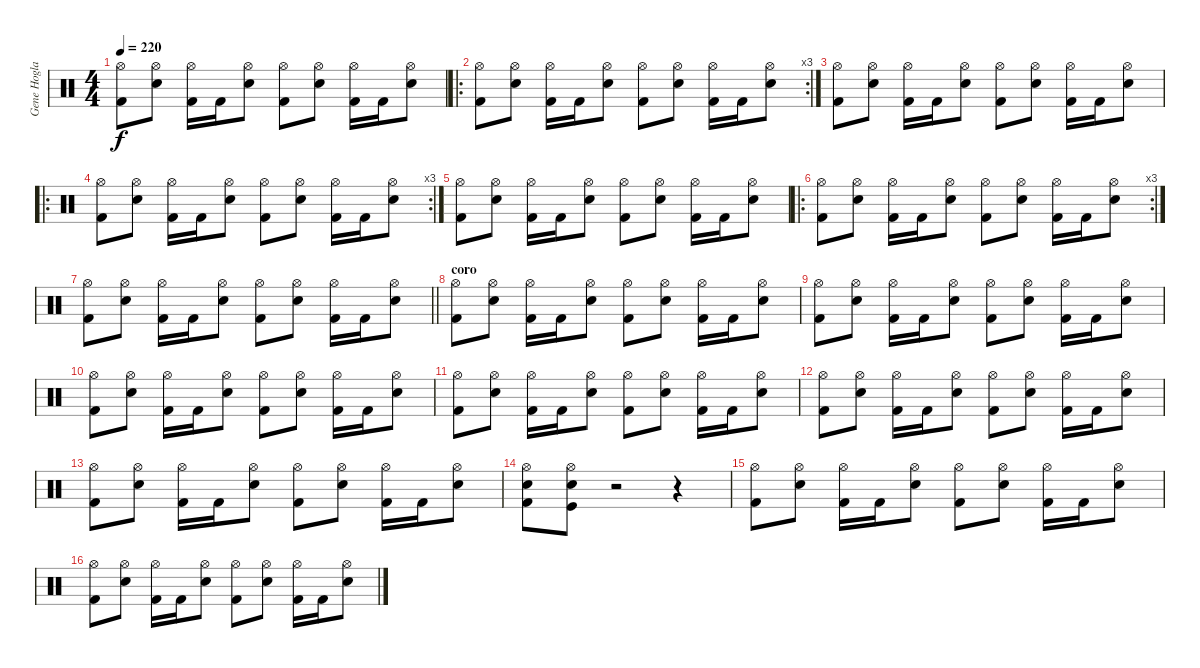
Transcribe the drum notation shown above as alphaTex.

\track ("Gene Hoglan" "Gene Hogla") {instrument percussion}
\staff {score}
\articulation defaults
\ts (4 4)
\tempo 220
\clef neutral
\ks c
("Hi-Hat (open)" "Kick (hit) 2").8{dy f} ("Hi-Hat (open)" "Electric Snare (hit)").8 ("Hi-Hat (open)" "Kick (hit) 2").16 "Kick (hit) 2".16 ("Hi-Hat (open)" "Electric Snare (hit)").8 ("Hi-Hat (open)" "Kick (hit) 2").8 ("Hi-Hat (open)" "Electric Snare (hit)").8 ("Hi-Hat (open)" "Kick (hit) 2").16 "Kick (hit) 2".16 ("Hi-Hat (open)" "Electric Snare (hit)").8 |
\ro
\rc 3
("Hi-Hat (open)" "Kick (hit) 2").8 ("Hi-Hat (open)" "Electric Snare (hit)").8 ("Hi-Hat (open)" "Kick (hit) 2").16 "Kick (hit) 2".16 ("Hi-Hat (open)" "Electric Snare (hit)").8 ("Hi-Hat (open)" "Kick (hit) 2").8 ("Hi-Hat (open)" "Electric Snare (hit)").8 ("Hi-Hat (open)" "Kick (hit) 2").16 "Kick (hit) 2".16 ("Hi-Hat (open)" "Electric Snare (hit)").8 |
("Hi-Hat (open)" "Kick (hit) 2").8 ("Hi-Hat (open)" "Electric Snare (hit)").8 ("Hi-Hat (open)" "Kick (hit) 2").16 "Kick (hit) 2".16 ("Hi-Hat (open)" "Electric Snare (hit)").8 ("Hi-Hat (open)" "Kick (hit) 2").8 ("Hi-Hat (open)" "Electric Snare (hit)").8 ("Hi-Hat (open)" "Kick (hit) 2").16 "Kick (hit) 2".16 ("Hi-Hat (open)" "Electric Snare (hit)").8 |
\ro
\rc 3
("Hi-Hat (open)" "Kick (hit) 2").8 ("Hi-Hat (open)" "Electric Snare (hit)").8 ("Hi-Hat (open)" "Kick (hit) 2").16 "Kick (hit) 2".16 ("Hi-Hat (open)" "Electric Snare (hit)").8 ("Hi-Hat (open)" "Kick (hit) 2").8 ("Hi-Hat (open)" "Electric Snare (hit)").8 ("Hi-Hat (open)" "Kick (hit) 2").16 "Kick (hit) 2".16 ("Hi-Hat (open)" "Electric Snare (hit)").8 |
("Hi-Hat (open)" "Kick (hit) 2").8 ("Hi-Hat (open)" "Electric Snare (hit)").8 ("Hi-Hat (open)" "Kick (hit) 2").16 "Kick (hit) 2".16 ("Hi-Hat (open)" "Electric Snare (hit)").8 ("Hi-Hat (open)" "Kick (hit) 2").8 ("Hi-Hat (open)" "Electric Snare (hit)").8 ("Hi-Hat (open)" "Kick (hit) 2").16 "Kick (hit) 2".16 ("Hi-Hat (open)" "Electric Snare (hit)").8 |
\ro
\rc 3
("Hi-Hat (open)" "Kick (hit) 2").8 ("Hi-Hat (open)" "Electric Snare (hit)").8 ("Hi-Hat (open)" "Kick (hit) 2").16 "Kick (hit) 2".16 ("Hi-Hat (open)" "Electric Snare (hit)").8 ("Hi-Hat (open)" "Kick (hit) 2").8 ("Hi-Hat (open)" "Electric Snare (hit)").8 ("Hi-Hat (open)" "Kick (hit) 2").16 "Kick (hit) 2".16 ("Hi-Hat (open)" "Electric Snare (hit)").8 |
\barLineRight lightlight
("Hi-Hat (open)" "Kick (hit) 2").8 ("Hi-Hat (open)" "Electric Snare (hit)").8 ("Hi-Hat (open)" "Kick (hit) 2").16 "Kick (hit) 2".16 ("Hi-Hat (open)" "Electric Snare (hit)").8 ("Hi-Hat (open)" "Kick (hit) 2").8 ("Hi-Hat (open)" "Electric Snare (hit)").8 ("Hi-Hat (open)" "Kick (hit) 2").16 "Kick (hit) 2".16 ("Hi-Hat (open)" "Electric Snare (hit)").8 |
\section ("" "coro")
("Hi-Hat (open)" "Kick (hit) 2").8 ("Hi-Hat (open)" "Electric Snare (hit)").8 ("Hi-Hat (open)" "Kick (hit) 2").16 "Kick (hit) 2".16 ("Hi-Hat (open)" "Electric Snare (hit)").8 ("Hi-Hat (open)" "Kick (hit) 2").8 ("Hi-Hat (open)" "Electric Snare (hit)").8 ("Hi-Hat (open)" "Kick (hit) 2").16 "Kick (hit) 2".16 ("Hi-Hat (open)" "Electric Snare (hit)").8 |
("Hi-Hat (open)" "Kick (hit) 2").8 ("Hi-Hat (open)" "Electric Snare (hit)").8 ("Hi-Hat (open)" "Kick (hit) 2").16 "Kick (hit) 2".16 ("Hi-Hat (open)" "Electric Snare (hit)").8 ("Hi-Hat (open)" "Kick (hit) 2").8 ("Hi-Hat (open)" "Electric Snare (hit)").8 ("Hi-Hat (open)" "Kick (hit) 2").16 "Kick (hit) 2".16 ("Hi-Hat (open)" "Electric Snare (hit)").8 |
("Hi-Hat (open)" "Kick (hit) 2").8 ("Hi-Hat (open)" "Electric Snare (hit)").8 ("Hi-Hat (open)" "Kick (hit) 2").16 "Kick (hit) 2".16 ("Hi-Hat (open)" "Electric Snare (hit)").8 ("Hi-Hat (open)" "Kick (hit) 2").8 ("Hi-Hat (open)" "Electric Snare (hit)").8 ("Hi-Hat (open)" "Kick (hit) 2").16 "Kick (hit) 2".16 ("Hi-Hat (open)" "Electric Snare (hit)").8 |
("Hi-Hat (open)" "Kick (hit) 2").8 ("Hi-Hat (open)" "Electric Snare (hit)").8 ("Hi-Hat (open)" "Kick (hit) 2").16 "Kick (hit) 2".16 ("Hi-Hat (open)" "Electric Snare (hit)").8 ("Hi-Hat (open)" "Kick (hit) 2").8 ("Hi-Hat (open)" "Electric Snare (hit)").8 ("Hi-Hat (open)" "Kick (hit) 2").16 "Kick (hit) 2".16 ("Hi-Hat (open)" "Electric Snare (hit)").8 |
("Hi-Hat (open)" "Kick (hit) 2").8 ("Hi-Hat (open)" "Electric Snare (hit)").8 ("Hi-Hat (open)" "Kick (hit) 2").16 "Kick (hit) 2".16 ("Hi-Hat (open)" "Electric Snare (hit)").8 ("Hi-Hat (open)" "Kick (hit) 2").8 ("Hi-Hat (open)" "Electric Snare (hit)").8 ("Hi-Hat (open)" "Kick (hit) 2").16 "Kick (hit) 2".16 ("Hi-Hat (open)" "Electric Snare (hit)").8 |
("Hi-Hat (open)" "Kick (hit) 2").8 ("Hi-Hat (open)" "Electric Snare (hit)").8 ("Hi-Hat (open)" "Kick (hit) 2").16 "Kick (hit) 2".16 ("Hi-Hat (open)" "Electric Snare (hit)").8 ("Hi-Hat (open)" "Kick (hit) 2").8 ("Hi-Hat (open)" "Electric Snare (hit)").8 ("Hi-Hat (open)" "Kick (hit) 2").16 "Kick (hit) 2".16 ("Hi-Hat (open)" "Electric Snare (hit)").8 |
("Hi-Hat (open)" "Electric Snare (hit)" "Kick (hit) 2").8 ("Hi-Hat (open)" "Electric Snare (hit)" "Kick (hit)").8 r.2 r.4 |
("Hi-Hat (open)" "Kick (hit) 2").8 ("Hi-Hat (open)" "Electric Snare (hit)").8 ("Hi-Hat (open)" "Kick (hit) 2").16 "Kick (hit) 2".16 ("Hi-Hat (open)" "Electric Snare (hit)").8 ("Hi-Hat (open)" "Kick (hit) 2").8 ("Hi-Hat (open)" "Electric Snare (hit)").8 ("Hi-Hat (open)" "Kick (hit) 2").16 "Kick (hit) 2".16 ("Hi-Hat (open)" "Electric Snare (hit)").8 |
("Hi-Hat (open)" "Kick (hit) 2").8 ("Hi-Hat (open)" "Electric Snare (hit)").8 ("Hi-Hat (open)" "Kick (hit) 2").16 "Kick (hit) 2".16 ("Hi-Hat (open)" "Electric Snare (hit)").8 ("Hi-Hat (open)" "Kick (hit) 2").8 ("Hi-Hat (open)" "Electric Snare (hit)").8 ("Hi-Hat (open)" "Kick (hit) 2").16 "Kick (hit) 2".16 ("Hi-Hat (open)" "Electric Snare (hit)").8
